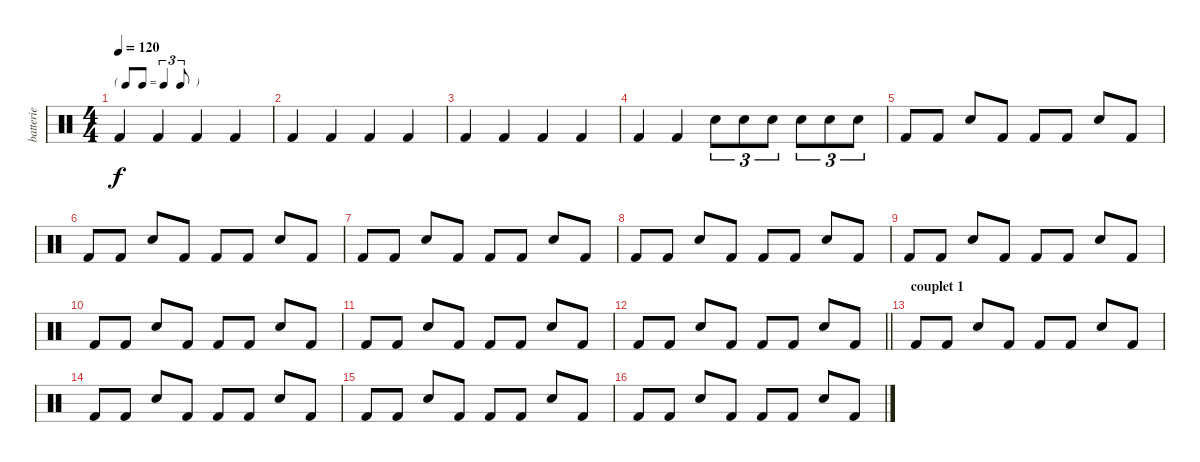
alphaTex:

\track ("batterie" "batterie") {instrument percussion}
\staff {score}
\articulation defaults
\ts (4 4)
\tf triplet8th
\tempo 120
\clef neutral
\ks c "Kick (hit) 2".4{dy f} "Kick (hit) 2".4 "Kick (hit) 2".4 "Kick (hit) 2".4
|
"Kick (hit) 2".4 "Kick (hit) 2".4 "Kick (hit) 2".4 "Kick (hit) 2".4 |
"Kick (hit) 2".4 "Kick (hit) 2".4 "Kick (hit) 2".4 "Kick (hit) 2".4 |
"Kick (hit) 2".4 "Kick (hit) 2".4 "Snare (hit) 2".8{tu (3 2)} "Snare (hit) 2".8{tu (3 2)} "Snare (hit) 2".8{tu (3 2)} "Snare (hit) 2".8{tu (3 2)} "Snare (hit) 2".8{tu (3 2)} "Snare (hit) 2".8{tu (3 2)} |
"Kick (hit) 2".8 "Kick (hit) 2".8 "Snare (hit) 2".8 "Kick (hit) 2".8 "Kick (hit) 2".8 "Kick (hit) 2".8 "Snare (hit) 2".8 "Kick (hit) 2".8 |
"Kick (hit) 2".8 "Kick (hit) 2".8 "Snare (hit) 2".8 "Kick (hit) 2".8 "Kick (hit) 2".8 "Kick (hit) 2".8 "Snare (hit) 2".8 "Kick (hit) 2".8 |
"Kick (hit) 2".8 "Kick (hit) 2".8 "Snare (hit) 2".8 "Kick (hit) 2".8 "Kick (hit) 2".8 "Kick (hit) 2".8 "Snare (hit) 2".8 "Kick (hit) 2".8 |
"Kick (hit) 2".8 "Kick (hit) 2".8 "Snare (hit) 2".8 "Kick (hit) 2".8 "Kick (hit) 2".8 "Kick (hit) 2".8 "Snare (hit) 2".8 "Kick (hit) 2".8 |
"Kick (hit) 2".8 "Kick (hit) 2".8 "Snare (hit) 2".8 "Kick (hit) 2".8 "Kick (hit) 2".8 "Kick (hit) 2".8 "Snare (hit) 2".8 "Kick (hit) 2".8 |
"Kick (hit) 2".8 "Kick (hit) 2".8 "Snare (hit) 2".8 "Kick (hit) 2".8 "Kick (hit) 2".8 "Kick (hit) 2".8 "Snare (hit) 2".8 "Kick (hit) 2".8 |
"Kick (hit) 2".8 "Kick (hit) 2".8 "Snare (hit) 2".8 "Kick (hit) 2".8 "Kick (hit) 2".8 "Kick (hit) 2".8 "Snare (hit) 2".8 "Kick (hit) 2".8 |
\barLineRight lightlight "Kick (hit) 2".8 "Kick (hit) 2".8 "Snare (hit) 2".8 "Kick (hit) 2".8 "Kick (hit) 2".8 "Kick (hit) 2".8 "Snare (hit) 2".8 "Kick (hit) 2".8
|
\section ("" "couplet 1")
"Kick (hit) 2".8 "Kick (hit) 2".8 "Snare (hit) 2".8 "Kick (hit) 2".8 "Kick (hit) 2".8 "Kick (hit) 2".8 "Snare (hit) 2".8 "Kick (hit) 2".8 |
"Kick (hit) 2".8 "Kick (hit) 2".8 "Snare (hit) 2".8 "Kick (hit) 2".8 "Kick (hit) 2".8 "Kick (hit) 2".8 "Snare (hit) 2".8 "Kick (hit) 2".8 |
"Kick (hit) 2".8 "Kick (hit) 2".8 "Snare (hit) 2".8 "Kick (hit) 2".8 "Kick (hit) 2".8 "Kick (hit) 2".8 "Snare (hit) 2".8 "Kick (hit) 2".8 |
"Kick (hit) 2".8 "Kick (hit) 2".8 "Snare (hit) 2".8 "Kick (hit) 2".8 "Kick (hit) 2".8 "Kick (hit) 2".8 "Snare (hit) 2".8 "Kick (hit) 2".8
